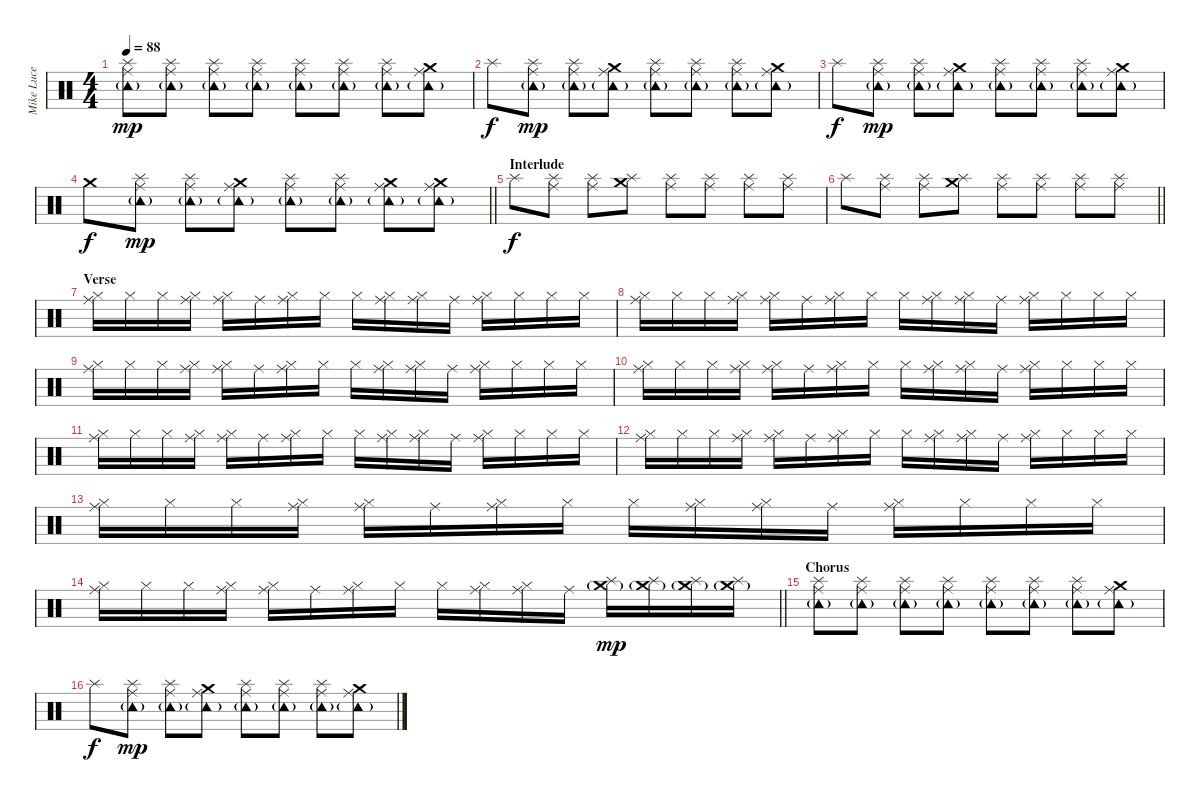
\track ("Mike Luce (Drums)" "Mike Luce ") {instrument percussion}
\staff {score}
\articulation defaults
\ts (4 4)
\tempo 88
\clef neutral
\ks c
("Splash (hit)" "Tambourine (hit)"{g} "Ride (middle)").8{dy mp} ("Splash (hit)" "Tambourine (hit)"{g} "Ride (middle)").8 ("Splash (hit)" "Tambourine (hit)"{g} "Ride (middle)").8 ("Splash (hit)" "Tambourine (hit)"{g} "Ride (middle)").8 ("Splash (hit)" "Tambourine (hit)"{g} "Ride (middle)").8 ("Splash (hit)" "Tambourine (hit)"{g} "Ride (middle)").8 ("Splash (hit)" "Tambourine (hit)"{g} "Ride (middle)").8 ("Crash medium (hit)" "Tambourine (hit)"{g} "Ride (middle)").8 |
"Splash (hit)".8{dy f} ("Splash (hit)" "Tambourine (hit)"{g} "Ride (middle)").8{dy mp} ("Splash (hit)" "Tambourine (hit)"{g} "Ride (middle)").8 ("Crash medium (hit)" "Tambourine (hit)"{g} "Ride (middle)").8 ("Splash (hit)" "Tambourine (hit)"{g} "Ride (middle)").8 ("Splash (hit)" "Tambourine (hit)"{g} "Ride (middle)").8 ("Splash (hit)" "Tambourine (hit)"{g} "Ride (middle)").8 ("Crash medium (hit)" "Tambourine (hit)"{g} "Ride (middle)").8 |
"Splash (hit)".8{dy f} ("Splash (hit)" "Tambourine (hit)"{g} "Ride (middle)").8{dy mp} ("Splash (hit)" "Tambourine (hit)"{g} "Ride (middle)").8 ("Crash medium (hit)" "Tambourine (hit)"{g} "Ride (middle)").8 ("Splash (hit)" "Tambourine (hit)"{g} "Ride (middle)").8 ("Splash (hit)" "Tambourine (hit)"{g} "Ride (middle)").8 ("Splash (hit)" "Tambourine (hit)"{g} "Ride (middle)").8 ("Crash medium (hit)" "Tambourine (hit)"{g} "Ride (middle)").8 |
\barLineRight lightlight "Crash medium (hit)".8{dy f}
("Splash (hit)" "Tambourine (hit)"{g} "Ride (middle)").8{dy mp} ("Splash (hit)" "Tambourine (hit)"{g} "Ride (middle)").8 ("Crash medium (hit)" "Tambourine (hit)"{g} "Ride (middle)").8 ("Splash (hit)" "Tambourine (hit)"{g} "Ride (middle)").8 ("Splash (hit)" "Tambourine (hit)"{g} "Ride (middle)").8 ("Crash medium (hit)" "Tambourine (hit)"{g} "Ride (middle)").8 ("Crash medium (hit)" "Tambourine (hit)"{g} "Ride (middle)").8 |
\section ("" "Interlude")
"Splash (hit)".8{dy f} ("Splash (hit)" "Ride (middle)").8 ("Splash (hit)" "Ride (middle)").8 ("Splash (hit)" "Crash medium (hit)").8 ("Splash (hit)" "Ride (middle)").8 ("Splash (hit)" "Ride (middle)").8 ("Splash (hit)" "Ride (middle)").8 ("Splash (hit)" "Ride (middle)").8 |
\barLineRight lightlight "Splash (hit)".8
("Splash (hit)" "Ride (middle)").8 ("Splash (hit)" "Ride (middle)").8 ("Splash (hit)" "Crash medium (hit)").8 ("Splash (hit)" "Ride (middle)").8 ("Splash (hit)" "Ride (middle)").8 ("Splash (hit)" "Ride (middle)").8 ("Splash (hit)" "Ride (middle)").8 |
\section ("" "Verse")
("Hi-Hat (closed)" "Ride (middle)").16 "Hi-Hat (closed)".16 "Hi-Hat (closed)".16 ("Hi-Hat (closed)" "Ride (middle)").16 ("Hi-Hat (closed)" "Ride (middle)").16 "Ride (middle)".16 ("Hi-Hat (closed)" "Ride (middle)").16 "Hi-Hat (closed)".16 "Hi-Hat (closed)".16 ("Hi-Hat (closed)" "Ride (middle)").16 ("Hi-Hat (closed)" "Ride (middle)").16 "Ride (middle)".16 ("Hi-Hat (closed)" "Ride (middle)").16 "Hi-Hat (closed)".16 "Hi-Hat (closed)".16 "Hi-Hat (closed)".16 |
("Hi-Hat (closed)" "Ride (middle)").16 "Hi-Hat (closed)".16 "Hi-Hat (closed)".16 ("Hi-Hat (closed)" "Ride (middle)").16 ("Hi-Hat (closed)" "Ride (middle)").16 "Ride (middle)".16 ("Hi-Hat (closed)" "Ride (middle)").16 "Hi-Hat (closed)".16 "Hi-Hat (closed)".16 ("Hi-Hat (closed)" "Ride (middle)").16 ("Hi-Hat (closed)" "Ride (middle)").16 "Ride (middle)".16 ("Hi-Hat (closed)" "Ride (middle)").16 "Hi-Hat (closed)".16 "Hi-Hat (closed)".16 "Hi-Hat (closed)".16 |
("Hi-Hat (closed)" "Ride (middle)").16 "Hi-Hat (closed)".16 "Hi-Hat (closed)".16 ("Hi-Hat (closed)" "Ride (middle)").16 ("Hi-Hat (closed)" "Ride (middle)").16 "Ride (middle)".16 ("Hi-Hat (closed)" "Ride (middle)").16 "Hi-Hat (closed)".16 "Hi-Hat (closed)".16 ("Hi-Hat (closed)" "Ride (middle)").16 ("Hi-Hat (closed)" "Ride (middle)").16 "Ride (middle)".16 ("Hi-Hat (closed)" "Ride (middle)").16 "Hi-Hat (closed)".16 "Hi-Hat (closed)".16 "Hi-Hat (closed)".16 |
("Hi-Hat (closed)" "Ride (middle)").16 "Hi-Hat (closed)".16 "Hi-Hat (closed)".16 ("Hi-Hat (closed)" "Ride (middle)").16 ("Hi-Hat (closed)" "Ride (middle)").16 "Ride (middle)".16 ("Hi-Hat (closed)" "Ride (middle)").16 "Hi-Hat (closed)".16 "Hi-Hat (closed)".16 ("Hi-Hat (closed)" "Ride (middle)").16 ("Hi-Hat (closed)" "Ride (middle)").16 "Ride (middle)".16 ("Hi-Hat (closed)" "Ride (middle)").16 "Hi-Hat (closed)".16 "Hi-Hat (closed)".16 "Hi-Hat (closed)".16 |
("Hi-Hat (closed)" "Ride (middle)").16 "Hi-Hat (closed)".16 "Hi-Hat (closed)".16 ("Hi-Hat (closed)" "Ride (middle)").16 ("Hi-Hat (closed)" "Ride (middle)").16 "Ride (middle)".16 ("Hi-Hat (closed)" "Ride (middle)").16 "Hi-Hat (closed)".16 "Hi-Hat (closed)".16 ("Hi-Hat (closed)" "Ride (middle)").16 ("Hi-Hat (closed)" "Ride (middle)").16 "Ride (middle)".16 ("Hi-Hat (closed)" "Ride (middle)").16 "Hi-Hat (closed)".16 "Hi-Hat (closed)".16 "Hi-Hat (closed)".16 |
("Hi-Hat (closed)" "Ride (middle)").16 "Hi-Hat (closed)".16 "Hi-Hat (closed)".16 ("Hi-Hat (closed)" "Ride (middle)").16 ("Hi-Hat (closed)" "Ride (middle)").16 "Ride (middle)".16 ("Hi-Hat (closed)" "Ride (middle)").16 "Hi-Hat (closed)".16 "Hi-Hat (closed)".16 ("Hi-Hat (closed)" "Ride (middle)").16 ("Hi-Hat (closed)" "Ride (middle)").16 "Ride (middle)".16 ("Hi-Hat (closed)" "Ride (middle)").16 "Hi-Hat (closed)".16 "Hi-Hat (closed)".16 "Hi-Hat (closed)".16 |
("Hi-Hat (closed)" "Ride (middle)").16 "Hi-Hat (closed)".16 "Hi-Hat (closed)".16 ("Hi-Hat (closed)" "Ride (middle)").16 ("Hi-Hat (closed)" "Ride (middle)").16 "Ride (middle)".16 ("Hi-Hat (closed)" "Ride (middle)").16 "Hi-Hat (closed)".16 "Hi-Hat (closed)".16 ("Hi-Hat (closed)" "Ride (middle)").16 ("Hi-Hat (closed)" "Ride (middle)").16 "Ride (middle)".16 ("Hi-Hat (closed)" "Ride (middle)").16 "Hi-Hat (closed)".16 "Hi-Hat (closed)".16 "Hi-Hat (closed)".16 |
\barLineRight lightlight
("Hi-Hat (closed)" "Ride (middle)").16 "Hi-Hat (closed)".16 "Hi-Hat (closed)".16 ("Hi-Hat (closed)" "Ride (middle)").16 ("Hi-Hat (closed)" "Ride (middle)").16 "Ride (middle)".16 ("Hi-Hat (closed)" "Ride (middle)").16 "Hi-Hat (closed)".16 "Hi-Hat (closed)".16 ("Hi-Hat (closed)" "Ride (middle)").16 ("Hi-Hat (closed)" "Ride (middle)").16 "Ride (middle)".16 ("Splash (hit)" "Crash medium (hit)"{g}).16{dy mp} ("Splash (hit)" "Crash medium (hit)"{g}).16 ("Splash (hit)" "Crash medium (hit)"{g}).16 ("Splash (hit)" "Crash medium (hit)"{g}).16 |
\section ("" "Chorus")
("Splash (hit)" "Tambourine (hit)"{g} "Ride (middle)").8 ("Splash (hit)" "Tambourine (hit)"{g} "Ride (middle)").8 ("Splash (hit)" "Tambourine (hit)"{g} "Ride (middle)").8 ("Splash (hit)" "Tambourine (hit)"{g} "Ride (middle)").8 ("Splash (hit)" "Tambourine (hit)"{g} "Ride (middle)").8 ("Splash (hit)" "Tambourine (hit)"{g} "Ride (middle)").8 ("Splash (hit)" "Tambourine (hit)"{g} "Ride (middle)").8 ("Crash medium (hit)" "Tambourine (hit)"{g} "Ride (middle)").8 |
"Splash (hit)".8{dy f} ("Splash (hit)" "Tambourine (hit)"{g} "Ride (middle)").8{dy mp} ("Splash (hit)" "Tambourine (hit)"{g} "Ride (middle)").8 ("Crash medium (hit)" "Tambourine (hit)"{g} "Ride (middle)").8 ("Splash (hit)" "Tambourine (hit)"{g} "Ride (middle)").8 ("Splash (hit)" "Tambourine (hit)"{g} "Ride (middle)").8 ("Splash (hit)" "Tambourine (hit)"{g} "Ride (middle)").8 ("Crash medium (hit)" "Tambourine (hit)"{g} "Ride (middle)").8
